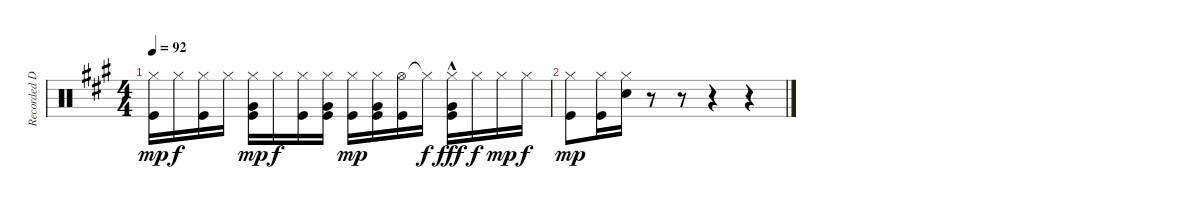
\track ("Recorded Durms" "Recorded D") {instrument percussion}
\staff {score}
\articulation defaults
\ts (4 4)
\tempo 92
\clef neutral
\ks a
("Hi-Hat (closed)" "Kick (hit)").16{dy mp} "Hi-Hat (closed)".16{dy f} ("Hi-Hat (closed)" "Kick (hit)").16 "Hi-Hat (closed)".16 ("Hi-Hat (closed)" "Very Low Tom (hit)" "Kick (hit)").16{dy mp} "Hi-Hat (closed)".16{dy f} ("Hi-Hat (closed)" "Kick (hit)").16 ("Hi-Hat (closed)" "Very Low Tom (hit)" "Kick (hit)").16 ("Hi-Hat (closed)" "Kick (hit)").16{dy mp} ("Hi-Hat (closed)" "Very Low Tom (hit)" "Kick (hit)").16 ("Hi-Hat (open)" "Kick (hit)").16 "Hi-Hat (closed)"{t}.16{dy f} ("Hi-Hat (closed)" "Very Low Tom (hit)"{hac} "Kick (hit)").16{dy fff} "Hi-Hat (closed)".16{dy f} "Hi-Hat (closed)".16{dy mp} "Hi-Hat (closed)".16{dy f} |
("Hi-Hat (closed)" "Kick (hit)").8{dy mp} ("Hi-Hat (closed)" "Kick (hit)").16 ("Hi-Hat (closed)" "Snare (hit) 2").16 r.8 r.8 r.4 r.4
